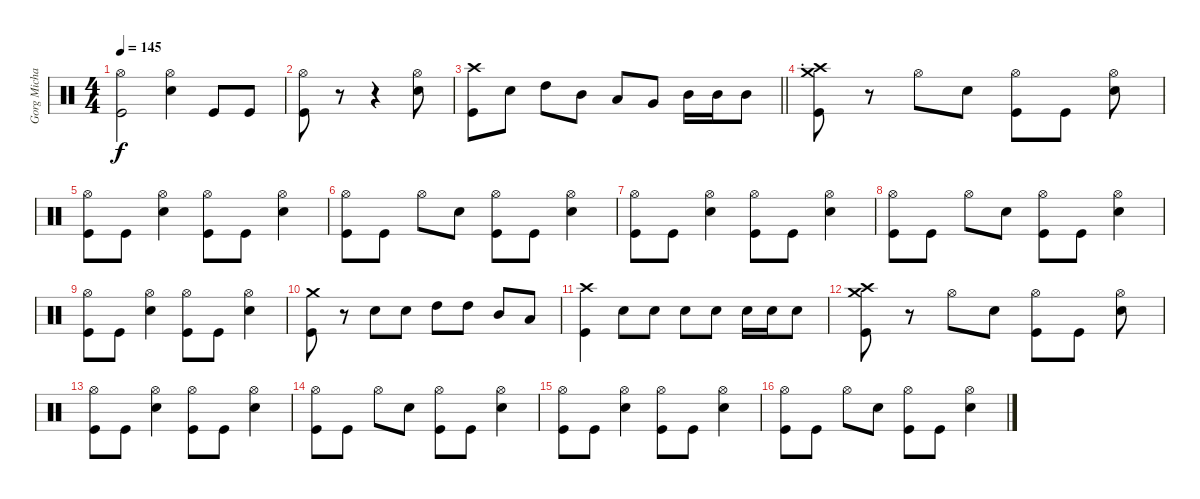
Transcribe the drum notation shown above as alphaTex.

\track ("Gorg Michael" "Gorg Micha") {instrument percussion}
\staff {score}
\articulation defaults
\ts (4 4)
\tempo 145
\clef neutral
\ks c
("Hi-Hat (open)" "Kick (hit)").2{dy f} ("Hi-Hat (open)" "Snare (hit) 2").4 "Kick (hit)".8 "Kick (hit)".8 |
("Hi-Hat (open)" "Kick (hit)").8 r.8 r.4 ("Hi-Hat (open)" "Snare (hit) 2").8 |
\barLineRight lightlight
("Crash high (hit)" "Kick (hit)").8 "Snare (hit) 2".8 "High Tom (hit)".8 "Mid Tom (hit)".8 "Low Tom (hit)".8 "Very Low Tom (hit)".8 "Mid Tom (hit)".16 "Mid Tom (hit)".16 "Mid Tom (hit)".8 |
\section ("" ".")
("Crash high (hit)" "Crash medium (hit)" "Kick (hit)").8 r.8 "Hi-Hat (open)".8 "Snare (hit) 2".8 ("Hi-Hat (open)" "Kick (hit)").8 "Kick (hit)".8 ("Hi-Hat (open)" "Snare (hit) 2").8 |
("Hi-Hat (open)" "Kick (hit)").8 "Kick (hit)".8 ("Hi-Hat (open)" "Snare (hit) 2").4 ("Hi-Hat (open)" "Kick (hit)").8 "Kick (hit)".8 ("Hi-Hat (open)" "Snare (hit) 2").4 |
("Hi-Hat (open)" "Kick (hit)").8 "Kick (hit)".8 "Hi-Hat (open)".8 "Snare (hit) 2".8 ("Hi-Hat (open)" "Kick (hit)").8 "Kick (hit)".8 ("Hi-Hat (open)" "Snare (hit) 2").4 |
("Hi-Hat (open)" "Kick (hit)").8 "Kick (hit)".8 ("Hi-Hat (open)" "Snare (hit) 2").4 ("Hi-Hat (open)" "Kick (hit)").8 "Kick (hit)".8 ("Hi-Hat (open)" "Snare (hit) 2").4 |
("Hi-Hat (open)" "Kick (hit)").8 "Kick (hit)".8 "Hi-Hat (open)".8 "Snare (hit) 2".8 ("Hi-Hat (open)" "Kick (hit)").8 "Kick (hit)".8 ("Hi-Hat (open)" "Snare (hit) 2").4 |
("Hi-Hat (open)" "Kick (hit)").8 "Kick (hit)".8 ("Hi-Hat (open)" "Snare (hit) 2").4 ("Hi-Hat (open)" "Kick (hit)").8 "Kick (hit)".8 ("Hi-Hat (open)" "Snare (hit) 2").4 |
("Crash medium (hit)" "Kick (hit)").8 r.8 "Snare (hit) 2".8 "Snare (hit) 2".8 "High Tom (hit)".8 "High Tom (hit)".8 "Mid Tom (hit)".8 "Low Tom (hit)".8 |
("Crash high (hit)" "Kick (hit)").4 "Snare (hit) 2".8 "Snare (hit) 2".8 "Snare (hit) 2".8 "Snare (hit) 2".8 "Snare (hit) 2".16 "Snare (hit) 2".16 "Snare (hit) 2".8 |
("Crash high (hit)" "Crash medium (hit)" "Kick (hit)").8 r.8 "Hi-Hat (open)".8 "Snare (hit) 2".8 ("Hi-Hat (open)" "Kick (hit)").8 "Kick (hit)".8 ("Hi-Hat (open)" "Snare (hit) 2").8 |
("Hi-Hat (open)" "Kick (hit)").8 "Kick (hit)".8 ("Hi-Hat (open)" "Snare (hit) 2").4 ("Hi-Hat (open)" "Kick (hit)").8 "Kick (hit)".8 ("Hi-Hat (open)" "Snare (hit) 2").4 |
("Hi-Hat (open)" "Kick (hit)").8 "Kick (hit)".8 "Hi-Hat (open)".8 "Snare (hit) 2".8 ("Hi-Hat (open)" "Kick (hit)").8 "Kick (hit)".8 ("Hi-Hat (open)" "Snare (hit) 2").4 |
("Hi-Hat (open)" "Kick (hit)").8 "Kick (hit)".8 ("Hi-Hat (open)" "Snare (hit) 2").4 ("Hi-Hat (open)" "Kick (hit)").8 "Kick (hit)".8 ("Hi-Hat (open)" "Snare (hit) 2").4 |
("Hi-Hat (open)" "Kick (hit)").8 "Kick (hit)".8 "Hi-Hat (open)".8 "Snare (hit) 2".8 ("Hi-Hat (open)" "Kick (hit)").8 "Kick (hit)".8 ("Hi-Hat (open)" "Snare (hit) 2").4
